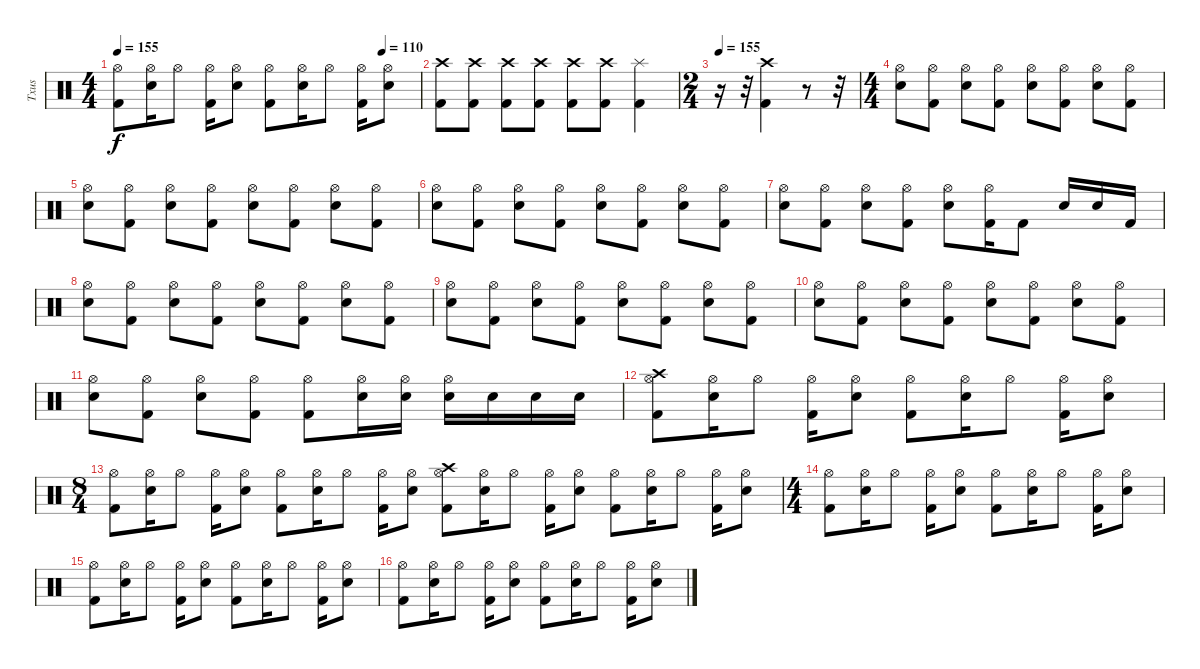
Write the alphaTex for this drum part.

\track ("Txus" "Txus") {instrument percussion}
\staff {score}
\articulation defaults
\ts (4 4)
\tempo 155
\tempo (110 0.875)
\clef neutral
\ks c
("Kick (hit) 2" "Hi-Hat (open)").8{dy f} ("Snare (hit) 2" "Hi-Hat (open)").16 "Hi-Hat (open)".8 ("Kick (hit) 2" "Hi-Hat (open)").16 ("Snare (hit) 2" "Hi-Hat (open)").8 ("Kick (hit) 2" "Hi-Hat (open)").8 ("Snare (hit) 2" "Hi-Hat (open)").16 "Hi-Hat (open)".8 ("Kick (hit) 2" "Hi-Hat (open)").16 ("Snare (hit) 2" "Hi-Hat (open)").8 |
("Kick (hit) 2" "Crash high (hit)").8 ("Kick (hit) 2" "Crash high (hit)").8 ("Kick (hit) 2" "Crash high (hit)").8 ("Kick (hit) 2" "Crash high (hit)").8 ("Kick (hit) 2" "Crash high (hit)").8 ("Kick (hit) 2" "Crash high (hit)").8 ("Kick (hit) 2" "Splash (hit)").4 |
\ts (2 4)
\tempo 155
r.16 r.32 ("Kick (hit) 2" "Crash high (hit)").4 r.8 r.32 |
\ts (4 4)
("Snare (hit) 2" "Hi-Hat (open)").8 ("Kick (hit) 2" "Hi-Hat (open)").8 ("Snare (hit) 2" "Hi-Hat (open)").8 ("Kick (hit) 2" "Hi-Hat (open)").8 ("Snare (hit) 2" "Hi-Hat (open)").8 ("Kick (hit) 2" "Hi-Hat (open)").8 ("Snare (hit) 2" "Hi-Hat (open)").8 ("Kick (hit) 2" "Hi-Hat (open)").8 |
("Snare (hit) 2" "Hi-Hat (open)").8 ("Kick (hit) 2" "Hi-Hat (open)").8 ("Snare (hit) 2" "Hi-Hat (open)").8 ("Kick (hit) 2" "Hi-Hat (open)").8 ("Snare (hit) 2" "Hi-Hat (open)").8 ("Kick (hit) 2" "Hi-Hat (open)").8 ("Snare (hit) 2" "Hi-Hat (open)").8 ("Kick (hit) 2" "Hi-Hat (open)").8 |
("Snare (hit) 2" "Hi-Hat (open)").8 ("Kick (hit) 2" "Hi-Hat (open)").8 ("Snare (hit) 2" "Hi-Hat (open)").8 ("Kick (hit) 2" "Hi-Hat (open)").8 ("Snare (hit) 2" "Hi-Hat (open)").8 ("Kick (hit) 2" "Hi-Hat (open)").8 ("Snare (hit) 2" "Hi-Hat (open)").8 ("Kick (hit) 2" "Hi-Hat (open)").8 |
("Snare (hit) 2" "Hi-Hat (open)").8 ("Kick (hit) 2" "Hi-Hat (open)").8 ("Snare (hit) 2" "Hi-Hat (open)").8 ("Kick (hit) 2" "Hi-Hat (open)").8 ("Snare (hit) 2" "Hi-Hat (open)").8 ("Kick (hit) 2" "Hi-Hat (open)").16 "Kick (hit) 2".8 "Snare (hit) 2".16 "Snare (hit) 2".16 "Kick (hit) 2".16 |
("Snare (hit) 2" "Hi-Hat (open)").8 ("Kick (hit) 2" "Hi-Hat (open)").8 ("Snare (hit) 2" "Hi-Hat (open)").8 ("Kick (hit) 2" "Hi-Hat (open)").8 ("Snare (hit) 2" "Hi-Hat (open)").8 ("Kick (hit) 2" "Hi-Hat (open)").8 ("Snare (hit) 2" "Hi-Hat (open)").8 ("Kick (hit) 2" "Hi-Hat (open)").8 |
("Snare (hit) 2" "Hi-Hat (open)").8 ("Kick (hit) 2" "Hi-Hat (open)").8 ("Snare (hit) 2" "Hi-Hat (open)").8 ("Kick (hit) 2" "Hi-Hat (open)").8 ("Snare (hit) 2" "Hi-Hat (open)").8 ("Kick (hit) 2" "Hi-Hat (open)").8 ("Snare (hit) 2" "Hi-Hat (open)").8 ("Kick (hit) 2" "Hi-Hat (open)").8 |
("Snare (hit) 2" "Hi-Hat (open)").8 ("Kick (hit) 2" "Hi-Hat (open)").8 ("Snare (hit) 2" "Hi-Hat (open)").8 ("Kick (hit) 2" "Hi-Hat (open)").8 ("Snare (hit) 2" "Hi-Hat (open)").8 ("Kick (hit) 2" "Hi-Hat (open)").8 ("Snare (hit) 2" "Hi-Hat (open)").8 ("Kick (hit) 2" "Hi-Hat (open)").8 |
("Snare (hit) 2" "Hi-Hat (open)").8 ("Kick (hit) 2" "Hi-Hat (open)").8 ("Snare (hit) 2" "Hi-Hat (open)").8 ("Kick (hit) 2" "Hi-Hat (open)").8 ("Kick (hit) 2" "Hi-Hat (open)").8 ("Snare (hit) 2" "Hi-Hat (open)").16 ("Snare (hit) 2" "Hi-Hat (open)").16 ("Snare (hit) 2" "Hi-Hat (open)").16 "Snare (hit) 2".16 "Snare (hit) 2".16 "Snare (hit) 2".16 |
("Kick (hit) 2" "Hi-Hat (open)" "Crash high (hit)").8 ("Snare (hit) 2" "Hi-Hat (open)").16 "Hi-Hat (open)".8 ("Kick (hit) 2" "Hi-Hat (open)").16 ("Snare (hit) 2" "Hi-Hat (open)").8 ("Kick (hit) 2" "Hi-Hat (open)").8 ("Snare (hit) 2" "Hi-Hat (open)").16 "Hi-Hat (open)".8 ("Kick (hit) 2" "Hi-Hat (open)").16 ("Snare (hit) 2" "Hi-Hat (open)").8 |
\ts (8 4)
("Kick (hit) 2" "Hi-Hat (open)").8 ("Snare (hit) 2" "Hi-Hat (open)").16 "Hi-Hat (open)".8 ("Kick (hit) 2" "Hi-Hat (open)").16 ("Snare (hit) 2" "Hi-Hat (open)").8 ("Kick (hit) 2" "Hi-Hat (open)").8 ("Snare (hit) 2" "Hi-Hat (open)").16 "Hi-Hat (open)".8 ("Kick (hit) 2" "Hi-Hat (open)").16 ("Snare (hit) 2" "Hi-Hat (open)").8 ("Kick (hit) 2" "Hi-Hat (open)" "Crash high (hit)").8 ("Snare (hit) 2" "Hi-Hat (open)").16 "Hi-Hat (open)".8 ("Kick (hit) 2" "Hi-Hat (open)").16 ("Snare (hit) 2" "Hi-Hat (open)").8 ("Kick (hit) 2" "Hi-Hat (open)").8 ("Snare (hit) 2" "Hi-Hat (open)").16 "Hi-Hat (open)".8 ("Kick (hit) 2" "Hi-Hat (open)").16 ("Snare (hit) 2" "Hi-Hat (open)").8 |
\ts (4 4)
("Kick (hit) 2" "Hi-Hat (open)").8 ("Snare (hit) 2" "Hi-Hat (open)").16 "Hi-Hat (open)".8 ("Kick (hit) 2" "Hi-Hat (open)").16 ("Snare (hit) 2" "Hi-Hat (open)").8 ("Kick (hit) 2" "Hi-Hat (open)").8 ("Snare (hit) 2" "Hi-Hat (open)").16 "Hi-Hat (open)".8 ("Kick (hit) 2" "Hi-Hat (open)").16 ("Snare (hit) 2" "Hi-Hat (open)").8 |
("Kick (hit) 2" "Hi-Hat (open)").8 ("Snare (hit) 2" "Hi-Hat (open)").16 "Hi-Hat (open)".8 ("Kick (hit) 2" "Hi-Hat (open)").16 ("Snare (hit) 2" "Hi-Hat (open)").8 ("Kick (hit) 2" "Hi-Hat (open)").8 ("Snare (hit) 2" "Hi-Hat (open)").16 "Hi-Hat (open)".8 ("Kick (hit) 2" "Hi-Hat (open)").16 ("Snare (hit) 2" "Hi-Hat (open)").8 |
("Kick (hit) 2" "Hi-Hat (open)").8 ("Snare (hit) 2" "Hi-Hat (open)").16 "Hi-Hat (open)".8 ("Kick (hit) 2" "Hi-Hat (open)").16 ("Snare (hit) 2" "Hi-Hat (open)").8 ("Kick (hit) 2" "Hi-Hat (open)").8 ("Snare (hit) 2" "Hi-Hat (open)").16 "Hi-Hat (open)".8 ("Kick (hit) 2" "Hi-Hat (open)").16 ("Snare (hit) 2" "Hi-Hat (open)").8
